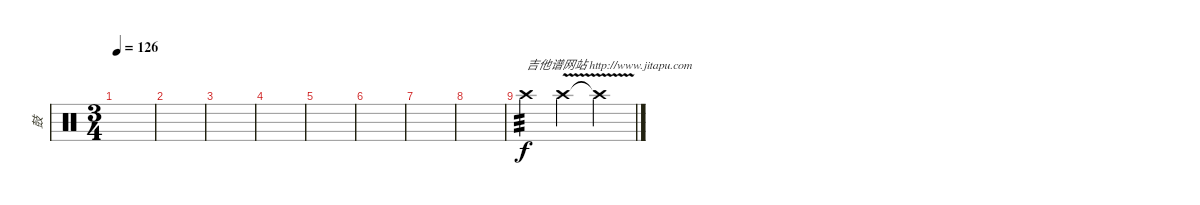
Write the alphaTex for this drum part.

\track ("鼓" "鼓") {instrument percussion}
\staff {score}
\articulation defaults
\ts (3 4)
\tempo 126
\clef neutral
\ks c
|
|
|
|
|
|
|
|
"Crash high (hit)".4{txt "吉他谱网站 http://www.jitapu.com" tp 3} "Crash high (hit)"{v}.4 "Crash high (hit)"{t}.4
